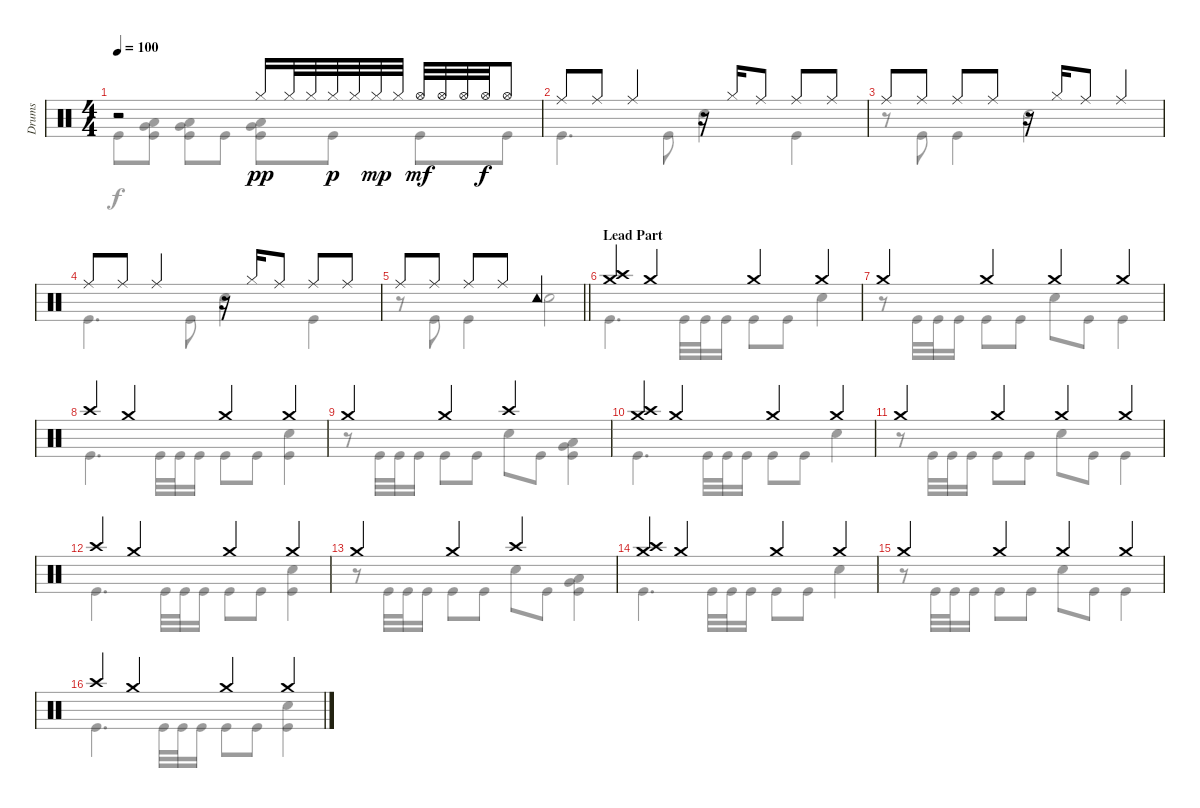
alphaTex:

\track ("Drums" "Drums") {instrument percussion}
\staff {score}
\articulation defaults
\voice
\ts (4 4)
\tempo 100
\clef neutral
\ks c
r.2{dy f} "Hi-Hat (closed)".16{dy pp} "Hi-Hat (closed)".32 "Hi-Hat (closed)".32 "Hi-Hat (closed)".32{dy p} "Hi-Hat (closed)".32 "Hi-Hat (closed)".32{dy mp} "Hi-Hat (closed)".32 "Hi-Hat (open)".32{dy mf} "Hi-Hat (open)".32 "Hi-Hat (open)".32 "Hi-Hat (open)".32{dy f} "Hi-Hat (open)".8 |
"Ride (middle)".8 "Ride (middle)".8 "Ride (middle)".4 r.16 "Hi-Hat (closed)".16 "Ride (middle)".8 "Ride (middle)".8 "Ride (middle)".8 |
"Ride (middle)".8 "Ride (middle)".8 "Ride (middle)".8 "Ride (middle)".8 r.16 "Hi-Hat (closed)".16 "Ride (middle)".8 "Ride (middle)".4 |
"Ride (middle)".8 "Ride (middle)".8 "Ride (middle)".4 r.16 "Hi-Hat (closed)".16 "Ride (middle)".8 "Ride (middle)".8 "Ride (middle)".8 |
\barLineRight lightlight "Ride (middle)".8 "Ride (middle)".8 "Ride (middle)".8 "Ride (middle)".8 "Tambourine (hit)".2
|
\section ("" "Lead Part")
("Crash medium (hit)" "Crash high (hit)").4 "Crash medium (hit)".4 "Crash medium (hit)".4 "Crash medium (hit)".4 |
"Crash medium (hit)".4 "Crash medium (hit)".4 "Crash medium (hit)".4 "Crash medium (hit)".4 |
"Crash high (hit)".4 "Crash medium (hit)".4 "Crash medium (hit)".4 "Crash medium (hit)".4 |
"Crash medium (hit)".4 "Crash medium (hit)".4 "Crash high (hit)".2 |
("Crash medium (hit)" "Crash high (hit)").4 "Crash medium (hit)".4 "Crash medium (hit)".4 "Crash medium (hit)".4 |
"Crash medium (hit)".4 "Crash medium (hit)".4 "Crash medium (hit)".4 "Crash medium (hit)".4 |
"Crash high (hit)".4 "Crash medium (hit)".4 "Crash medium (hit)".4 "Crash medium (hit)".4 |
"Crash medium (hit)".4 "Crash medium (hit)".4 "Crash high (hit)".2 |
("Crash medium (hit)" "Crash high (hit)").4 "Crash medium (hit)".4 "Crash medium (hit)".4 "Crash medium (hit)".4 |
"Crash medium (hit)".4 "Crash medium (hit)".4 "Crash medium (hit)".4 "Crash medium (hit)".4 |
"Crash high (hit)".4 "Crash medium (hit)".4 "Crash medium (hit)".4 "Crash medium (hit)".4
\voice
\clef neutral
\ottava regular
\simile none
\ks c "Kick (hit)".8{dy f}
("Low Tom (hit)" "Very Low Tom (hit)" "Kick (hit)").8 ("Low Tom (hit)" "Very Low Tom (hit)" "Kick (hit)").8 "Kick (hit)".8 ("Low Tom (hit)" "Very Low Tom (hit)" "Kick (hit)").8 "Kick (hit)".8 "Kick (hit)".8 "Kick (hit)".8 |
"Kick (hit)".4{d} "Kick (hit)".8 "Snare (hit) 2".4 "Kick (hit)".4 |
r.8 "Kick (hit)".8 "Kick (hit)".4 "Snare (hit) 2".2 |
"Kick (hit)".4{d} "Kick (hit)".8 "Snare (hit) 2".4 "Kick (hit)".4 |
\barLineRight lightlight
r.8 "Kick (hit)".8 "Kick (hit)".4 "Snare (hit) 2".2 |
"Kick (hit)".4{d} "Kick (hit)".32 "Kick (hit)".32 "Kick (hit)".16 "Kick (hit)".8 "Kick (hit)".8 "Snare (hit) 2".4 |
r.8 "Kick (hit)".32 "Kick (hit)".32 "Kick (hit)".16 "Kick (hit)".8 "Kick (hit)".8 "Snare (hit) 2".8 "Kick (hit)".8 "Kick (hit)".4 |
"Kick (hit)".4{d} "Kick (hit)".32 "Kick (hit)".32 "Kick (hit)".16 "Kick (hit)".8 "Kick (hit)".8 ("Snare (hit) 2" "Kick (hit)").4 |
r.8 "Kick (hit)".32 "Kick (hit)".32 "Kick (hit)".16 "Kick (hit)".8 "Kick (hit)".8 "Snare (hit) 2".8 "Kick (hit)".8 ("Very Low Tom (hit)" "Low Floor Tom (hit)" "Kick (hit)").4 |
"Kick (hit)".4{d} "Kick (hit)".32 "Kick (hit)".32 "Kick (hit)".16 "Kick (hit)".8 "Kick (hit)".8 "Snare (hit) 2".4 |
r.8 "Kick (hit)".32 "Kick (hit)".32 "Kick (hit)".16 "Kick (hit)".8 "Kick (hit)".8 "Snare (hit) 2".8 "Kick (hit)".8 "Kick (hit)".4 |
"Kick (hit)".4{d} "Kick (hit)".32 "Kick (hit)".32 "Kick (hit)".16 "Kick (hit)".8 "Kick (hit)".8 ("Snare (hit) 2" "Kick (hit)").4 |
r.8 "Kick (hit)".32 "Kick (hit)".32 "Kick (hit)".16 "Kick (hit)".8 "Kick (hit)".8 "Snare (hit) 2".8 "Kick (hit)".8 ("Very Low Tom (hit)" "Low Floor Tom (hit)" "Kick (hit)").4 |
"Kick (hit)".4{d} "Kick (hit)".32 "Kick (hit)".32 "Kick (hit)".16 "Kick (hit)".8 "Kick (hit)".8 "Snare (hit) 2".4 |
r.8 "Kick (hit)".32 "Kick (hit)".32 "Kick (hit)".16 "Kick (hit)".8 "Kick (hit)".8 "Snare (hit) 2".8 "Kick (hit)".8 "Kick (hit)".4 |
"Kick (hit)".4{d} "Kick (hit)".32 "Kick (hit)".32 "Kick (hit)".16 "Kick (hit)".8 "Kick (hit)".8 ("Snare (hit) 2" "Kick (hit)").4
